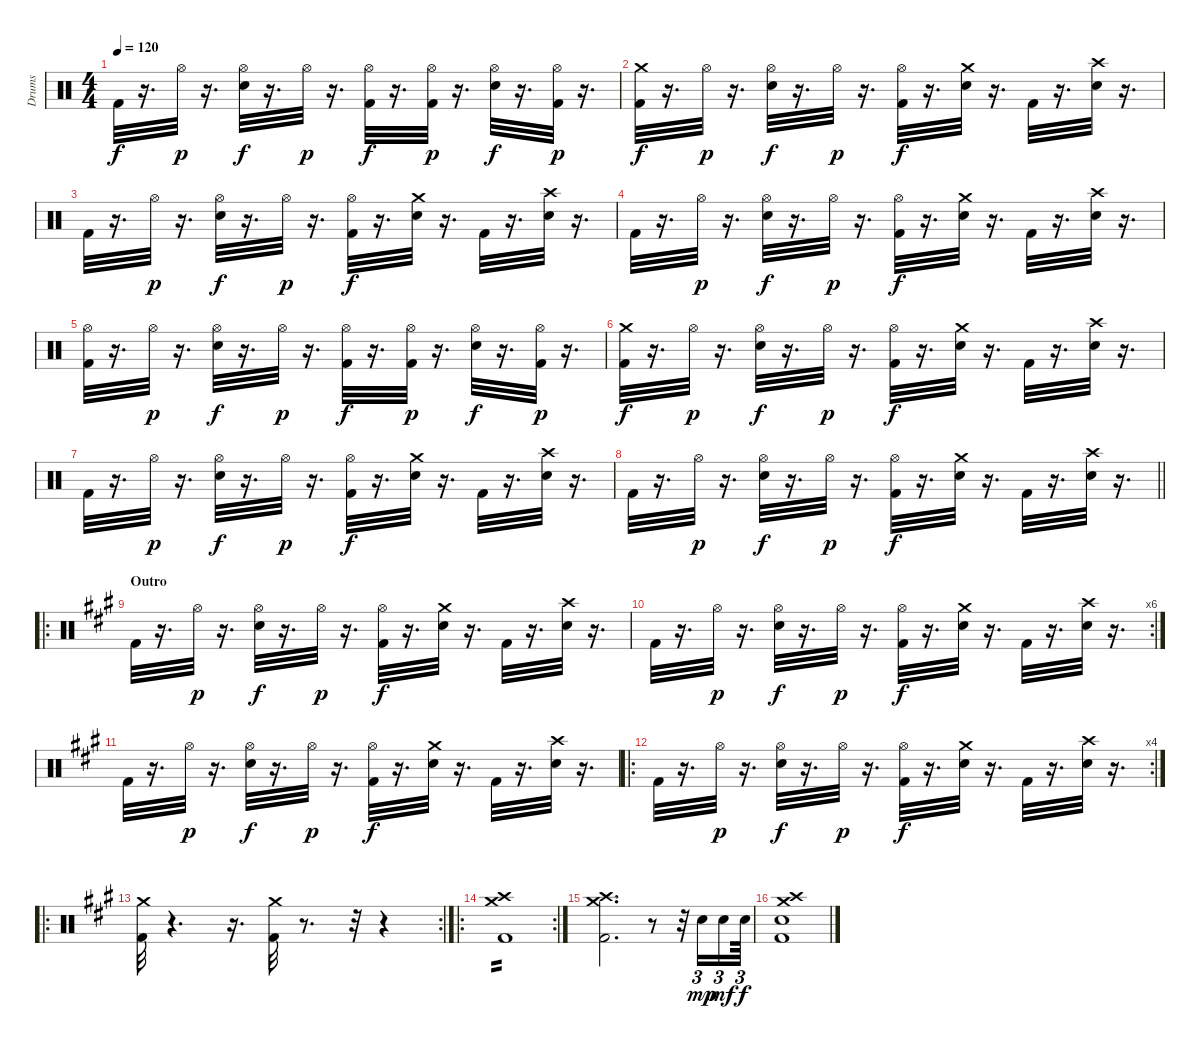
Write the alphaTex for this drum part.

\track ("Drums" "Drums") {instrument percussion}
\staff {score}
\articulation defaults
\ts (4 4)
\tempo 120
\clef neutral
\ks c "Kick (hit) 2".32{dy f}
r.16{d} "Hi-Hat (open)".32{dy p} r.16{d} ("Hi-Hat (open)" "Electric Snare (hit)").32{dy f} r.16{d} "Hi-Hat (open)".32{dy p} r.16{d} ("Hi-Hat (open)" "Kick (hit) 2").32{dy f} r.16{d} ("Hi-Hat (open)" "Kick (hit) 2").32{dy p} r.16{d} ("Hi-Hat (open)" "Electric Snare (hit)").32{dy f} r.16{d} ("Hi-Hat (open)" "Kick (hit) 2").32{dy p} r.16{d} |
("Crash medium (hit)" "Kick (hit) 2").32{dy f} r.16{d} "Hi-Hat (open)".32{dy p} r.16{d} ("Hi-Hat (open)" "Electric Snare (hit)").32{dy f} r.16{d} "Hi-Hat (open)".32{dy p} r.16{d} ("Hi-Hat (open)" "Kick (hit) 2").32{dy f} r.16{d} ("Crash medium (hit)" "Electric Snare (hit)").32 r.16{d} "Kick (hit) 2".32 r.16{d} ("Crash high (hit)" "Electric Snare (hit)").32 r.16{d} |
"Kick (hit) 2".32 r.16{d} "Hi-Hat (open)".32{dy p} r.16{d} ("Hi-Hat (open)" "Electric Snare (hit)").32{dy f} r.16{d} "Hi-Hat (open)".32{dy p} r.16{d} ("Kick (hit) 2" "Hi-Hat (open)").32{dy f} r.16{d} ("Electric Snare (hit)" "Crash medium (hit)").32 r.16{d} "Kick (hit) 2".32 r.16{d} ("Electric Snare (hit)" "Crash high (hit)").32 r.16{d} |
"Kick (hit) 2".32 r.16{d} "Hi-Hat (open)".32{dy p} r.16{d} ("Hi-Hat (open)" "Electric Snare (hit)").32{dy f} r.16{d} "Hi-Hat (open)".32{dy p} r.16{d} ("Hi-Hat (open)" "Kick (hit) 2").32{dy f} r.16{d} ("Crash medium (hit)" "Electric Snare (hit)").32 r.16{d} "Kick (hit) 2".32 r.16{d} ("Crash high (hit)" "Electric Snare (hit)").32 r.16{d} |
("Kick (hit) 2" "Hi-Hat (open)").32 r.16{d} "Hi-Hat (open)".32{dy p} r.16{d} ("Hi-Hat (open)" "Electric Snare (hit)").32{dy f} r.16{d} "Hi-Hat (open)".32{dy p} r.16{d} ("Hi-Hat (open)" "Kick (hit) 2").32{dy f} r.16{d} ("Hi-Hat (open)" "Kick (hit) 2").32{dy p} r.16{d} ("Hi-Hat (open)" "Electric Snare (hit)").32{dy f} r.16{d} ("Hi-Hat (open)" "Kick (hit) 2").32{dy p} r.16{d} |
("Crash medium (hit)" "Kick (hit) 2").32{dy f} r.16{d} "Hi-Hat (open)".32{dy p} r.16{d} ("Hi-Hat (open)" "Electric Snare (hit)").32{dy f} r.16{d} "Hi-Hat (open)".32{dy p} r.16{d} ("Hi-Hat (open)" "Kick (hit) 2").32{dy f} r.16{d} ("Crash medium (hit)" "Electric Snare (hit)").32 r.16{d} "Kick (hit) 2".32 r.16{d} ("Crash high (hit)" "Electric Snare (hit)").32 r.16{d} |
"Kick (hit) 2".32 r.16{d} "Hi-Hat (open)".32{dy p} r.16{d} ("Hi-Hat (open)" "Electric Snare (hit)").32{dy f} r.16{d} "Hi-Hat (open)".32{dy p} r.16{d} ("Kick (hit) 2" "Hi-Hat (open)").32{dy f} r.16{d} ("Electric Snare (hit)" "Crash medium (hit)").32 r.16{d} "Kick (hit) 2".32 r.16{d} ("Electric Snare (hit)" "Crash high (hit)").32 r.16{d} |
\barLineRight lightlight "Kick (hit) 2".32
r.16{d} "Hi-Hat (open)".32{dy p} r.16{d} ("Hi-Hat (open)" "Electric Snare (hit)").32{dy f} r.16{d} "Hi-Hat (open)".32{dy p} r.16{d} ("Hi-Hat (open)" "Kick (hit) 2").32{dy f} r.16{d} ("Crash medium (hit)" "Electric Snare (hit)").32 r.16{d} "Kick (hit) 2".32 r.16{d} ("Crash high (hit)" "Electric Snare (hit)").32 r.16{d} |
\ro
\section ("" "Outro")
\ks a "Kick (hit) 2".32
r.16{d} "Hi-Hat (open)".32{dy p} r.16{d} ("Hi-Hat (open)" "Electric Snare (hit)").32{dy f} r.16{d} "Hi-Hat (open)".32{dy p} r.16{d} ("Hi-Hat (open)" "Kick (hit) 2").32{dy f} r.16{d} ("Crash medium (hit)" "Electric Snare (hit)").32 r.16{d} "Kick (hit) 2".32 r.16{d} ("Crash high (hit)" "Electric Snare (hit)").32 r.16{d} |
\rc 6 "Kick (hit) 2".32
r.16{d} "Hi-Hat (open)".32{dy p} r.16{d} ("Hi-Hat (open)" "Electric Snare (hit)").32{dy f} r.16{d} "Hi-Hat (open)".32{dy p} r.16{d} ("Hi-Hat (open)" "Kick (hit) 2").32{dy f} r.16{d} ("Crash medium (hit)" "Electric Snare (hit)").32 r.16{d} "Kick (hit) 2".32 r.16{d} ("Crash high (hit)" "Electric Snare (hit)").32 r.16{d} |
"Kick (hit) 2".32 r.16{d} "Hi-Hat (open)".32{dy p} r.16{d} ("Hi-Hat (open)" "Electric Snare (hit)").32{dy f} r.16{d} "Hi-Hat (open)".32{dy p} r.16{d} ("Hi-Hat (open)" "Kick (hit) 2").32{dy f} r.16{d} ("Crash medium (hit)" "Electric Snare (hit)").32 r.16{d} "Kick (hit) 2".32 r.16{d} ("Crash high (hit)" "Electric Snare (hit)").32 r.16{d} |
\ro
\rc 4 "Kick (hit) 2".32
r.16{d} "Hi-Hat (open)".32{dy p} r.16{d} ("Hi-Hat (open)" "Electric Snare (hit)").32{dy f} r.16{d} "Hi-Hat (open)".32{dy p} r.16{d} ("Hi-Hat (open)" "Kick (hit) 2").32{dy f} r.16{d} ("Crash medium (hit)" "Electric Snare (hit)").32 r.16{d} "Kick (hit) 2".32 r.16{d} ("Crash high (hit)" "Electric Snare (hit)").32 r.16{d} |
\ro
\rc 2
("Kick (hit) 2" "Crash medium (hit)").32 r.4{d} r.16{d} ("Crash medium (hit)" "Kick (hit) 2").32 r.8{d} r.32 r.4 |
\ro
\rc 2
("Kick (hit) 2" "Crash high (hit)" "Crash medium (hit)").1{tp 2} |
("Kick (hit) 2" "Crash high (hit)" "Crash medium (hit)").2{d} r.8 r.32 "Electric Snare (hit)".16{tu (3 2) dy mp} "Electric Snare (hit)".16{tu (3 2) dy mf} "Electric Snare (hit)".64{tu (3 2) dy f} |
("Kick (hit) 2" "Snare (hit) 2" "Crash high (hit)" "Crash medium (hit)").1
